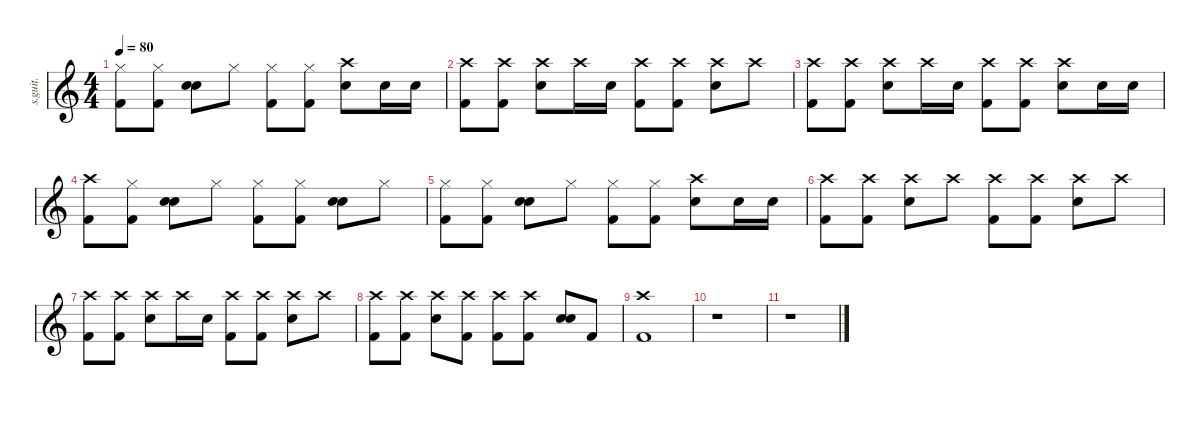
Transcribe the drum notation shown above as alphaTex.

\defaultSystemsLayout 4
\hideDynamics
\bracketExtendMode nobrackets
\track ("Tré Cool" "s.guit.") {instrument percussion}
\staff {score}
\articulation defaults
\ts (4 4)
\tempo 80
\clef g2
\ks c
("Hi-Hat (closed)" "Kick (hit) 2").8{lyrics (0 "") lyrics (1 "") lyrics (2 "") lyrics (3 "") lyrics (4 "") dy f} ("Hi-Hat (closed)" "Kick (hit) 2").8{lyrics (0 "") lyrics (1 "") lyrics (2 "") lyrics (3 "") lyrics (4 "")} ("Snare (hit) 2" "Snare (hit) 2").8{lyrics (0 "") lyrics (1 "") lyrics (2 "") lyrics (3 "") lyrics (4 "")} "Hi-Hat (closed)".8{lyrics (0 "") lyrics (1 "") lyrics (2 "") lyrics (3 "") lyrics (4 "")} ("Hi-Hat (closed)" "Kick (hit) 2").8{lyrics (0 "") lyrics (1 "") lyrics (2 "") lyrics (3 "") lyrics (4 "")} ("Hi-Hat (closed)" "Kick (hit) 2").8{lyrics (0 "") lyrics (1 "") lyrics (2 "") lyrics (3 "") lyrics (4 "")} ("Crash high (hit)" "Snare (hit) 2").8{lyrics (0 "") lyrics (1 "") lyrics (2 "") lyrics (3 "") lyrics (4 "")} "Snare (hit) 2".16{lyrics (0 "") lyrics (1 "") lyrics (2 "") lyrics (3 "") lyrics (4 "")} "Snare (hit) 2".16{lyrics (0 "") lyrics (1 "") lyrics (2 "") lyrics (3 "") lyrics (4 "")} |
("Crash high (hit)" "Kick (hit) 2").8{lyrics (0 "") lyrics (1 "") lyrics (2 "") lyrics (3 "") lyrics (4 "")} ("Crash high (hit)" "Kick (hit) 2").8{lyrics (0 "") lyrics (1 "") lyrics (2 "") lyrics (3 "") lyrics (4 "")} ("Crash high (hit)" "Snare (hit) 2").8{lyrics (0 "") lyrics (1 "") lyrics (2 "") lyrics (3 "") lyrics (4 "")} "Crash high (hit)".16{lyrics (0 "") lyrics (1 "") lyrics (2 "") lyrics (3 "") lyrics (4 "")} "Snare (hit) 2".16{lyrics (0 "") lyrics (1 "") lyrics (2 "") lyrics (3 "") lyrics (4 "")} ("Crash high (hit)" "Kick (hit) 2").8{lyrics (0 "") lyrics (1 "") lyrics (2 "") lyrics (3 "") lyrics (4 "")} ("Crash high (hit)" "Kick (hit) 2").8{lyrics (0 "") lyrics (1 "") lyrics (2 "") lyrics (3 "") lyrics (4 "")} ("Crash high (hit)" "Snare (hit) 2").8{lyrics (0 "") lyrics (1 "") lyrics (2 "") lyrics (3 "") lyrics (4 "")} "Crash high (hit)".8{lyrics (0 "") lyrics (1 "") lyrics (2 "") lyrics (3 "") lyrics (4 "")} |
("Crash high (hit)" "Kick (hit) 2").8{lyrics (0 "") lyrics (1 "") lyrics (2 "") lyrics (3 "") lyrics (4 "")} ("Crash high (hit)" "Kick (hit) 2").8{lyrics (0 "") lyrics (1 "") lyrics (2 "") lyrics (3 "") lyrics (4 "")} ("Crash high (hit)" "Snare (hit) 2").8{lyrics (0 "") lyrics (1 "") lyrics (2 "") lyrics (3 "") lyrics (4 "")} "Crash high (hit)".16{lyrics (0 "") lyrics (1 "") lyrics (2 "") lyrics (3 "") lyrics (4 "")} "Snare (hit) 2".16{lyrics (0 "") lyrics (1 "") lyrics (2 "") lyrics (3 "") lyrics (4 "")} ("Crash high (hit)" "Kick (hit) 2").8{lyrics (0 "") lyrics (1 "") lyrics (2 "") lyrics (3 "") lyrics (4 "")} ("Crash high (hit)" "Kick (hit) 2").8{lyrics (0 "") lyrics (1 "") lyrics (2 "") lyrics (3 "") lyrics (4 "")} ("Crash high (hit)" "Snare (hit) 2").8{lyrics (0 "") lyrics (1 "") lyrics (2 "") lyrics (3 "") lyrics (4 "")} "Snare (hit) 2".16{lyrics (0 "") lyrics (1 "") lyrics (2 "") lyrics (3 "") lyrics (4 "")} "Snare (hit) 2".16{lyrics (0 "") lyrics (1 "") lyrics (2 "") lyrics (3 "") lyrics (4 "")} |
("Crash high (hit)" "Kick (hit) 2").8{lyrics (0 "") lyrics (1 "") lyrics (2 "") lyrics (3 "") lyrics (4 "")} ("Hi-Hat (closed)" "Kick (hit) 2").8{lyrics (0 "") lyrics (1 "") lyrics (2 "") lyrics (3 "") lyrics (4 "")} ("Snare (hit) 2" "Snare (hit) 2").8{lyrics (0 "") lyrics (1 "") lyrics (2 "") lyrics (3 "") lyrics (4 "")} "Hi-Hat (closed)".8{lyrics (0 "") lyrics (1 "") lyrics (2 "") lyrics (3 "") lyrics (4 "")} ("Hi-Hat (closed)" "Kick (hit) 2").8{lyrics (0 "") lyrics (1 "") lyrics (2 "") lyrics (3 "") lyrics (4 "")} ("Hi-Hat (closed)" "Kick (hit) 2").8{lyrics (0 "") lyrics (1 "") lyrics (2 "") lyrics (3 "") lyrics (4 "")} ("Snare (hit) 2" "Snare (hit) 2").8{lyrics (0 "") lyrics (1 "") lyrics (2 "") lyrics (3 "") lyrics (4 "")} "Hi-Hat (closed)".8{lyrics (0 "") lyrics (1 "") lyrics (2 "") lyrics (3 "") lyrics (4 "")} |
("Hi-Hat (closed)" "Kick (hit) 2").8{lyrics (0 "") lyrics (1 "") lyrics (2 "") lyrics (3 "") lyrics (4 "")} ("Hi-Hat (closed)" "Kick (hit) 2").8{lyrics (0 "") lyrics (1 "") lyrics (2 "") lyrics (3 "") lyrics (4 "")} ("Snare (hit) 2" "Snare (hit) 2").8{lyrics (0 "") lyrics (1 "") lyrics (2 "") lyrics (3 "") lyrics (4 "")} "Hi-Hat (closed)".8{lyrics (0 "") lyrics (1 "") lyrics (2 "") lyrics (3 "") lyrics (4 "")} ("Hi-Hat (closed)" "Kick (hit) 2").8{lyrics (0 "") lyrics (1 "") lyrics (2 "") lyrics (3 "") lyrics (4 "")} ("Hi-Hat (closed)" "Kick (hit) 2").8{lyrics (0 "") lyrics (1 "") lyrics (2 "") lyrics (3 "") lyrics (4 "")} ("Crash high (hit)" "Snare (hit) 2").8{lyrics (0 "") lyrics (1 "") lyrics (2 "") lyrics (3 "") lyrics (4 "")} "Snare (hit) 2".16{lyrics (0 "") lyrics (1 "") lyrics (2 "") lyrics (3 "") lyrics (4 "")} "Snare (hit) 2".16{lyrics (0 "") lyrics (1 "") lyrics (2 "") lyrics (3 "") lyrics (4 "")} |
("Crash high (hit)" "Kick (hit) 2").8{lyrics (0 "") lyrics (1 "") lyrics (2 "") lyrics (3 "") lyrics (4 "")} ("Crash high (hit)" "Kick (hit) 2").8{lyrics (0 "") lyrics (1 "") lyrics (2 "") lyrics (3 "") lyrics (4 "")} ("Crash high (hit)" "Snare (hit) 2").8{lyrics (0 "") lyrics (1 "") lyrics (2 "") lyrics (3 "") lyrics (4 "")} "Crash high (hit)".8{lyrics (0 "") lyrics (1 "") lyrics (2 "") lyrics (3 "") lyrics (4 "")} ("Crash high (hit)" "Kick (hit) 2").8{lyrics (0 "") lyrics (1 "") lyrics (2 "") lyrics (3 "") lyrics (4 "")} ("Crash high (hit)" "Kick (hit) 2").8{lyrics (0 "") lyrics (1 "") lyrics (2 "") lyrics (3 "") lyrics (4 "")} ("Crash high (hit)" "Snare (hit) 2").8{lyrics (0 "") lyrics (1 "") lyrics (2 "") lyrics (3 "") lyrics (4 "")} "Crash high (hit)".8{lyrics (0 "") lyrics (1 "") lyrics (2 "") lyrics (3 "") lyrics (4 "")} |
("Crash high (hit)" "Kick (hit) 2").8{lyrics (0 "") lyrics (1 "") lyrics (2 "") lyrics (3 "") lyrics (4 "")} ("Crash high (hit)" "Kick (hit) 2").8{lyrics (0 "") lyrics (1 "") lyrics (2 "") lyrics (3 "") lyrics (4 "")} ("Crash high (hit)" "Snare (hit) 2").8{lyrics (0 "") lyrics (1 "") lyrics (2 "") lyrics (3 "") lyrics (4 "")} "Crash high (hit)".16{lyrics (0 "") lyrics (1 "") lyrics (2 "") lyrics (3 "") lyrics (4 "")} "Snare (hit) 2".16{lyrics (0 "") lyrics (1 "") lyrics (2 "") lyrics (3 "") lyrics (4 "")} ("Crash high (hit)" "Kick (hit) 2").8{lyrics (0 "") lyrics (1 "") lyrics (2 "") lyrics (3 "") lyrics (4 "")} ("Crash high (hit)" "Kick (hit) 2").8{lyrics (0 "") lyrics (1 "") lyrics (2 "") lyrics (3 "") lyrics (4 "")} ("Crash high (hit)" "Snare (hit) 2").8{lyrics (0 "") lyrics (1 "") lyrics (2 "") lyrics (3 "") lyrics (4 "")} "Crash high (hit)".8{lyrics (0 "") lyrics (1 "") lyrics (2 "") lyrics (3 "") lyrics (4 "")} |
("Crash high (hit)" "Kick (hit) 2").8{lyrics (0 "") lyrics (1 "") lyrics (2 "") lyrics (3 "") lyrics (4 "")} ("Crash high (hit)" "Kick (hit) 2").8{lyrics (0 "") lyrics (1 "") lyrics (2 "") lyrics (3 "") lyrics (4 "")} ("Crash high (hit)" "Snare (hit) 2").8{lyrics (0 "") lyrics (1 "") lyrics (2 "") lyrics (3 "") lyrics (4 "")} ("Crash high (hit)" "Kick (hit) 2").8{lyrics (0 "") lyrics (1 "") lyrics (2 "") lyrics (3 "") lyrics (4 "")} ("Crash high (hit)" "Kick (hit) 2").8{lyrics (0 "") lyrics (1 "") lyrics (2 "") lyrics (3 "") lyrics (4 "")} ("Crash high (hit)" "Kick (hit) 2").8{lyrics (0 "") lyrics (1 "") lyrics (2 "") lyrics (3 "") lyrics (4 "")} ("Snare (hit) 2" "Snare (hit) 2").8{lyrics (0 "") lyrics (1 "") lyrics (2 "") lyrics (3 "") lyrics (4 "")} "Kick (hit) 2".8{lyrics (0 "") lyrics (1 "") lyrics (2 "") lyrics (3 "") lyrics (4 "")} |
("Crash high (hit)" "Kick (hit) 2").1{lyrics (0 "") lyrics (1 "") lyrics (2 "") lyrics (3 "") lyrics (4 "")} |
r.1 |
r.1
